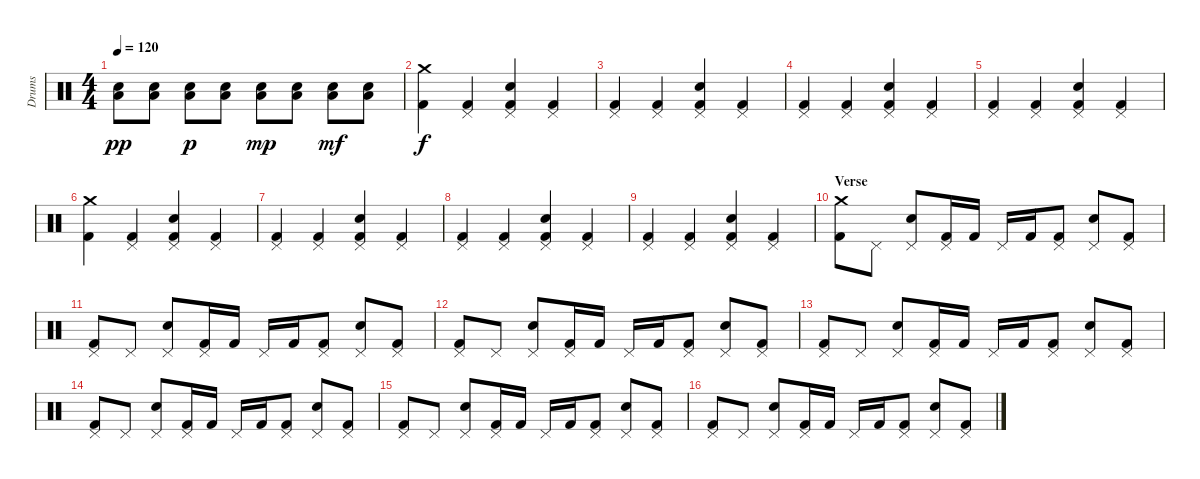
\track ("Drums" "Drums") {instrument percussion}
\staff {score}
\articulation defaults
\ts (4 4)
\tempo 120
\clef neutral
\ks c
("Electric Snare (hit)" "Low Tom (hit)").8{dy pp} ("Electric Snare (hit)" "Low Tom (hit)").8 ("Electric Snare (hit)" "Low Tom (hit)").8{dy p} ("Electric Snare (hit)" "Low Tom (hit)").8 ("Electric Snare (hit)" "Low Tom (hit)").8{dy mp} ("Electric Snare (hit)" "Low Tom (hit)").8 ("Electric Snare (hit)" "Low Tom (hit)").8{dy mf} ("Electric Snare (hit)" "Low Tom (hit)").8 |
("Crash medium (hit)" "Kick (hit) 2").4{dy f} ("Pedal Hi-Hat (hit)" "Kick (hit) 2").4 ("Pedal Hi-Hat (hit)" "Electric Snare (hit)" "Kick (hit) 2").4 ("Pedal Hi-Hat (hit)" "Kick (hit) 2").4 |
("Pedal Hi-Hat (hit)" "Kick (hit) 2").4 ("Pedal Hi-Hat (hit)" "Kick (hit) 2").4 ("Pedal Hi-Hat (hit)" "Electric Snare (hit)" "Kick (hit) 2").4 ("Pedal Hi-Hat (hit)" "Kick (hit) 2").4 |
("Pedal Hi-Hat (hit)" "Kick (hit) 2").4 ("Pedal Hi-Hat (hit)" "Kick (hit) 2").4 ("Pedal Hi-Hat (hit)" "Electric Snare (hit)" "Kick (hit) 2").4 ("Pedal Hi-Hat (hit)" "Kick (hit) 2").4 |
("Pedal Hi-Hat (hit)" "Kick (hit) 2").4 ("Pedal Hi-Hat (hit)" "Kick (hit) 2").4 ("Pedal Hi-Hat (hit)" "Electric Snare (hit)" "Kick (hit) 2").4 ("Pedal Hi-Hat (hit)" "Kick (hit) 2").4 |
("Crash medium (hit)" "Kick (hit) 2").4 ("Pedal Hi-Hat (hit)" "Kick (hit) 2").4 ("Pedal Hi-Hat (hit)" "Electric Snare (hit)" "Kick (hit) 2").4 ("Pedal Hi-Hat (hit)" "Kick (hit) 2").4 |
("Pedal Hi-Hat (hit)" "Kick (hit) 2").4 ("Pedal Hi-Hat (hit)" "Kick (hit) 2").4 ("Pedal Hi-Hat (hit)" "Electric Snare (hit)" "Kick (hit) 2").4 ("Pedal Hi-Hat (hit)" "Kick (hit) 2").4 |
("Pedal Hi-Hat (hit)" "Kick (hit) 2").4 ("Pedal Hi-Hat (hit)" "Kick (hit) 2").4 ("Pedal Hi-Hat (hit)" "Electric Snare (hit)" "Kick (hit) 2").4 ("Pedal Hi-Hat (hit)" "Kick (hit) 2").4 |
("Pedal Hi-Hat (hit)" "Kick (hit) 2").4 ("Pedal Hi-Hat (hit)" "Kick (hit) 2").4 ("Pedal Hi-Hat (hit)" "Electric Snare (hit)" "Kick (hit) 2").4 ("Pedal Hi-Hat (hit)" "Kick (hit) 2").4 |
\section ("" "Verse")
("Crash medium (hit)" "Kick (hit) 2").8 "Pedal Hi-Hat (hit)".8 ("Pedal Hi-Hat (hit)" "Electric Snare (hit)").8 ("Pedal Hi-Hat (hit)" "Kick (hit) 2").16 "Kick (hit) 2".16 "Pedal Hi-Hat (hit)".16 "Kick (hit) 2".16 ("Pedal Hi-Hat (hit)" "Kick (hit) 2").8 ("Pedal Hi-Hat (hit)" "Electric Snare (hit)").8 ("Pedal Hi-Hat (hit)" "Kick (hit) 2").8 |
("Pedal Hi-Hat (hit)" "Kick (hit) 2").8 "Pedal Hi-Hat (hit)".8 ("Pedal Hi-Hat (hit)" "Electric Snare (hit)").8 ("Pedal Hi-Hat (hit)" "Kick (hit) 2").16 "Kick (hit) 2".16 "Pedal Hi-Hat (hit)".16 "Kick (hit) 2".16 ("Pedal Hi-Hat (hit)" "Kick (hit) 2").8 ("Pedal Hi-Hat (hit)" "Electric Snare (hit)").8 ("Pedal Hi-Hat (hit)" "Kick (hit) 2").8 |
("Pedal Hi-Hat (hit)" "Kick (hit) 2").8 "Pedal Hi-Hat (hit)".8 ("Pedal Hi-Hat (hit)" "Electric Snare (hit)").8 ("Pedal Hi-Hat (hit)" "Kick (hit) 2").16 "Kick (hit) 2".16 "Pedal Hi-Hat (hit)".16 "Kick (hit) 2".16 ("Pedal Hi-Hat (hit)" "Kick (hit) 2").8 ("Pedal Hi-Hat (hit)" "Electric Snare (hit)").8 ("Pedal Hi-Hat (hit)" "Kick (hit) 2").8 |
("Pedal Hi-Hat (hit)" "Kick (hit) 2").8 "Pedal Hi-Hat (hit)".8 ("Pedal Hi-Hat (hit)" "Electric Snare (hit)").8 ("Pedal Hi-Hat (hit)" "Kick (hit) 2").16 "Kick (hit) 2".16 "Pedal Hi-Hat (hit)".16 "Kick (hit) 2".16 ("Pedal Hi-Hat (hit)" "Kick (hit) 2").8 ("Pedal Hi-Hat (hit)" "Electric Snare (hit)").8 ("Pedal Hi-Hat (hit)" "Kick (hit) 2").8 |
("Pedal Hi-Hat (hit)" "Kick (hit) 2").8 "Pedal Hi-Hat (hit)".8 ("Pedal Hi-Hat (hit)" "Electric Snare (hit)").8 ("Pedal Hi-Hat (hit)" "Kick (hit) 2").16 "Kick (hit) 2".16 "Pedal Hi-Hat (hit)".16 "Kick (hit) 2".16 ("Pedal Hi-Hat (hit)" "Kick (hit) 2").8 ("Pedal Hi-Hat (hit)" "Electric Snare (hit)").8 ("Pedal Hi-Hat (hit)" "Kick (hit) 2").8 |
("Pedal Hi-Hat (hit)" "Kick (hit) 2").8 "Pedal Hi-Hat (hit)".8 ("Pedal Hi-Hat (hit)" "Electric Snare (hit)").8 ("Pedal Hi-Hat (hit)" "Kick (hit) 2").16 "Kick (hit) 2".16 "Pedal Hi-Hat (hit)".16 "Kick (hit) 2".16 ("Pedal Hi-Hat (hit)" "Kick (hit) 2").8 ("Pedal Hi-Hat (hit)" "Electric Snare (hit)").8 ("Pedal Hi-Hat (hit)" "Kick (hit) 2").8 |
("Pedal Hi-Hat (hit)" "Kick (hit) 2").8 "Pedal Hi-Hat (hit)".8 ("Pedal Hi-Hat (hit)" "Electric Snare (hit)").8 ("Pedal Hi-Hat (hit)" "Kick (hit) 2").16 "Kick (hit) 2".16 "Pedal Hi-Hat (hit)".16 "Kick (hit) 2".16 ("Pedal Hi-Hat (hit)" "Kick (hit) 2").8 ("Pedal Hi-Hat (hit)" "Electric Snare (hit)").8 ("Pedal Hi-Hat (hit)" "Kick (hit) 2").8
